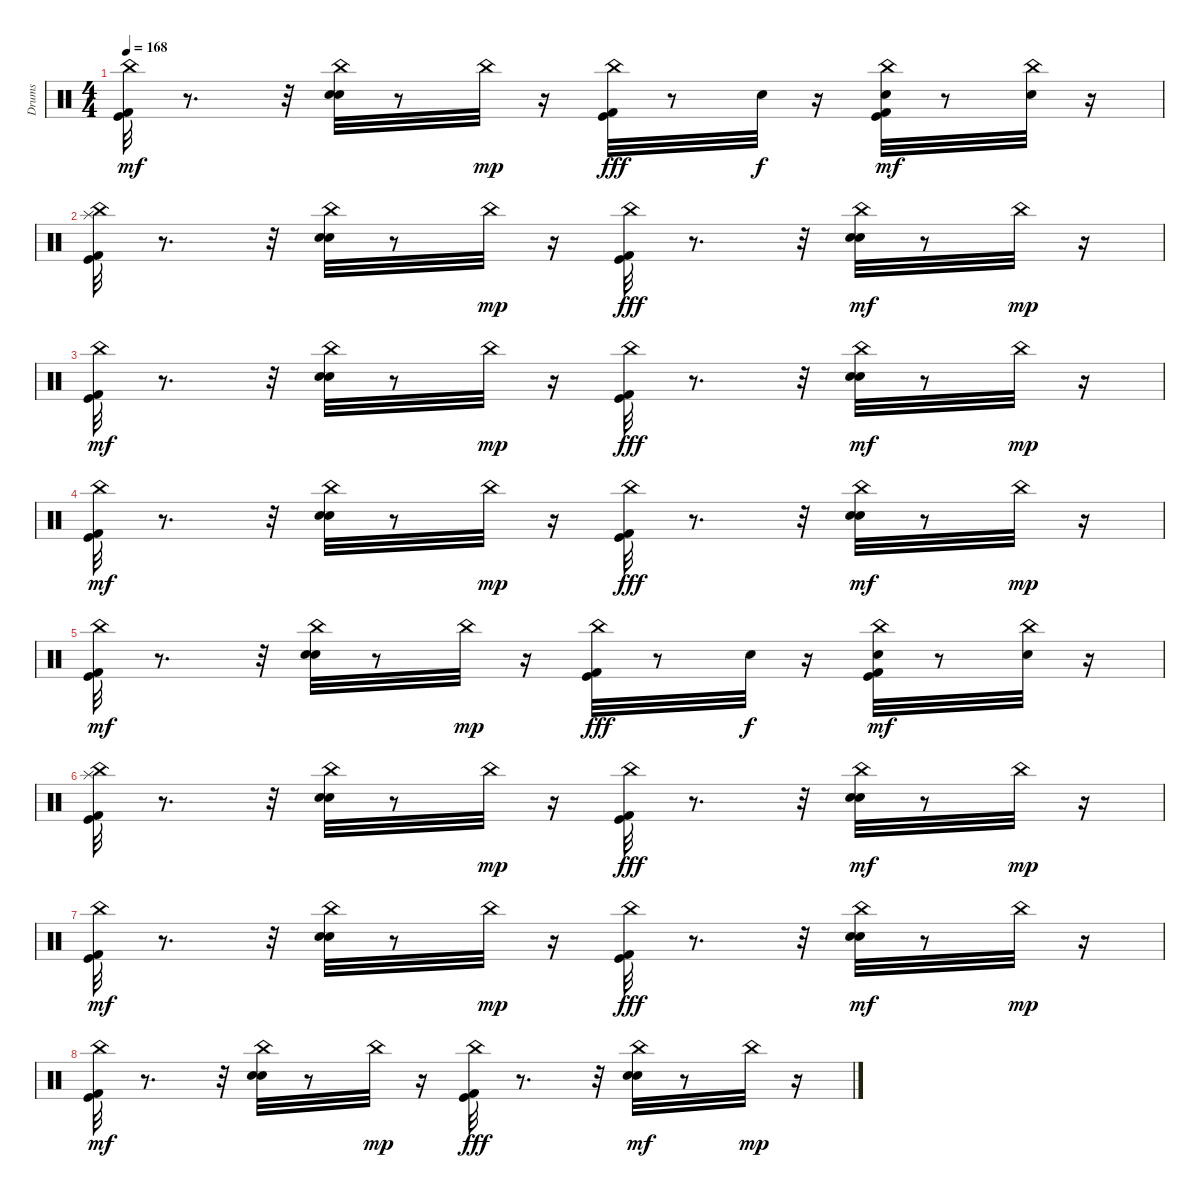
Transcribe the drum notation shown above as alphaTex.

\track ("Drums" "Drums") {instrument percussion}
\staff {score}
\articulation defaults
\ts (4 4)
\tempo 168
\clef neutral
\ks c
("Kick (hit) 2" "Kick (hit)" "China (hit)").32{dy mf} r.8{d} r.32 ("Snare (hit) 2" "China (hit)" "Hand Clap (hit)").32 r.8 "China (hit)".32{dy mp} r.16 ("China (hit)" "Kick (hit) 2" "Kick (hit)").32{dy fff} r.8 "Snare (hit) 2".32{dy f} r.16 ("China (hit)" "Kick (hit) 2" "Kick (hit)" "Hand Clap (hit)").32{dy mf} r.8 ("China (hit)" "Snare (hit) 2").32 r.16 |
("Kick (hit) 2" "Kick (hit)" "Splash (hit)" "China (hit)").32 r.8{d} r.32 ("Snare (hit) 2" "China (hit)" "Hand Clap (hit)").32 r.8 "China (hit)".32{dy mp} r.16 ("China (hit)" "Kick (hit) 2" "Kick (hit)").32{dy fff} r.8{d} r.32 ("Snare (hit) 2" "China (hit)" "Hand Clap (hit)").32{dy mf} r.8 "China (hit)".32{dy mp} r.16 |
("Kick (hit) 2" "Kick (hit)" "China (hit)").32{dy mf} r.8{d} r.32 ("Snare (hit) 2" "China (hit)" "Hand Clap (hit)").32 r.8 "China (hit)".32{dy mp} r.16 ("China (hit)" "Kick (hit) 2" "Kick (hit)").32{dy fff} r.8{d} r.32 ("Snare (hit) 2" "China (hit)" "Hand Clap (hit)").32{dy mf} r.8 "China (hit)".32{dy mp} r.16 |
("Kick (hit) 2" "Kick (hit)" "China (hit)").32{dy mf} r.8{d} r.32 ("Snare (hit) 2" "China (hit)" "Hand Clap (hit)").32 r.8 "China (hit)".32{dy mp} r.16 ("China (hit)" "Kick (hit) 2" "Kick (hit)").32{dy fff} r.8{d} r.32 ("Snare (hit) 2" "China (hit)" "Hand Clap (hit)").32{dy mf} r.8 "China (hit)".32{dy mp} r.16 |
("Kick (hit) 2" "Kick (hit)" "China (hit)").32{dy mf} r.8{d} r.32 ("Snare (hit) 2" "China (hit)" "Hand Clap (hit)").32 r.8 "China (hit)".32{dy mp} r.16 ("China (hit)" "Kick (hit) 2" "Kick (hit)").32{dy fff} r.8 "Snare (hit) 2".32{dy f} r.16 ("China (hit)" "Kick (hit) 2" "Kick (hit)" "Hand Clap (hit)").32{dy mf} r.8 ("China (hit)" "Snare (hit) 2").32 r.16 |
("Kick (hit) 2" "Kick (hit)" "Splash (hit)" "China (hit)").32 r.8{d} r.32 ("Snare (hit) 2" "China (hit)" "Hand Clap (hit)").32 r.8 "China (hit)".32{dy mp} r.16 ("China (hit)" "Kick (hit) 2" "Kick (hit)").32{dy fff} r.8{d} r.32 ("Snare (hit) 2" "China (hit)" "Hand Clap (hit)").32{dy mf} r.8 "China (hit)".32{dy mp} r.16 |
("Kick (hit) 2" "Kick (hit)" "China (hit)").32{dy mf} r.8{d} r.32 ("Snare (hit) 2" "China (hit)" "Hand Clap (hit)").32 r.8 "China (hit)".32{dy mp} r.16 ("China (hit)" "Kick (hit) 2" "Kick (hit)").32{dy fff} r.8{d} r.32 ("Snare (hit) 2" "China (hit)" "Hand Clap (hit)").32{dy mf} r.8 "China (hit)".32{dy mp} r.16 |
("Kick (hit) 2" "Kick (hit)" "China (hit)").32{dy mf} r.8{d} r.32 ("Snare (hit) 2" "China (hit)" "Hand Clap (hit)").32 r.8 "China (hit)".32{dy mp} r.16 ("China (hit)" "Kick (hit) 2" "Kick (hit)").32{dy fff} r.8{d} r.32 ("Snare (hit) 2" "China (hit)" "Hand Clap (hit)").32{dy mf} r.8 "China (hit)".32{dy mp} r.16
